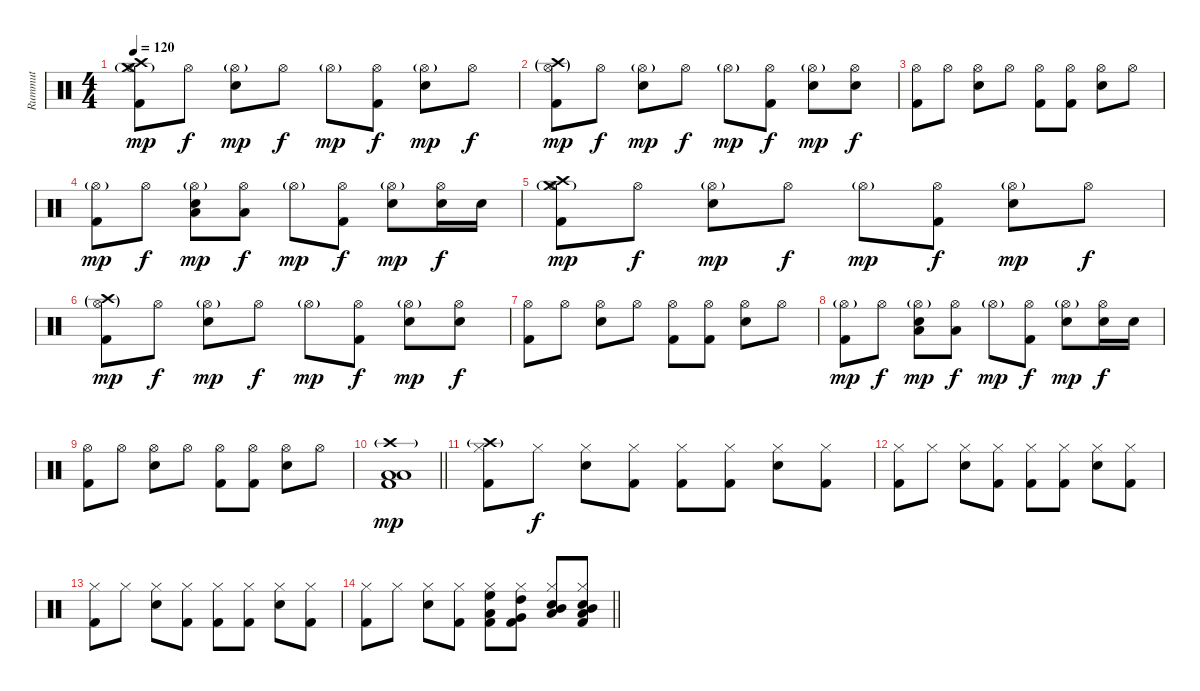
\track ("Rummut" "Rummut") {instrument percussion}
\staff {score}
\articulation defaults
\ts (4 4)
\tempo 120
\clef neutral
\ks c
("Hi-Hat (open)"{g} "Kick (hit) 2" "Crash medium (hit)" "Crash high (hit)").8{dy mp} "Hi-Hat (open)".8{dy f} ("Hi-Hat (open)"{g} "Snare (hit) 2").8{dy mp} "Hi-Hat (open)".8{dy f} "Hi-Hat (open)"{g}.8{dy mp} ("Hi-Hat (open)" "Kick (hit) 2").8{dy f} ("Hi-Hat (open)"{g} "Snare (hit) 2").8{dy mp} "Hi-Hat (open)".8{dy f} |
("Hi-Hat (open)"{g} "Kick (hit) 2" "Crash high (hit)"{g}).8{dy mp} "Hi-Hat (open)".8{dy f} ("Hi-Hat (open)"{g} "Snare (hit) 2").8{dy mp} "Hi-Hat (open)".8{dy f} "Hi-Hat (open)"{g}.8{dy mp} ("Hi-Hat (open)" "Kick (hit) 2").8{dy f} ("Hi-Hat (open)"{g} "Snare (hit) 2").8{dy mp} ("Hi-Hat (open)" "Snare (hit) 2").8{dy f} |
("Hi-Hat (open)" "Kick (hit) 2").8 "Hi-Hat (open)".8 ("Hi-Hat (open)" "Snare (hit) 2").8 "Hi-Hat (open)".8 ("Hi-Hat (open)" "Kick (hit) 2").8 ("Hi-Hat (open)" "Kick (hit) 2").8 ("Hi-Hat (open)" "Snare (hit) 2").8 "Hi-Hat (open)".8 |
("Hi-Hat (open)"{g} "Kick (hit) 2").8{dy mp} "Hi-Hat (open)".8{dy f} ("Hi-Hat (open)"{g} "Snare (hit) 2" "Low Tom (hit)").8{dy mp} ("Hi-Hat (open)" "Low Tom (hit)").8{dy f} "Hi-Hat (open)"{g}.8{dy mp} ("Hi-Hat (open)" "Kick (hit) 2").8{dy f} ("Hi-Hat (open)"{g} "Snare (hit) 2").8{dy mp} ("Hi-Hat (open)" "Snare (hit) 2").16{dy f} "Snare (hit) 2".16 |
("Hi-Hat (open)"{g} "Kick (hit) 2" "Crash medium (hit)" "Crash high (hit)").8{dy mp} "Hi-Hat (open)".8{dy f} ("Hi-Hat (open)"{g} "Snare (hit) 2").8{dy mp} "Hi-Hat (open)".8{dy f} "Hi-Hat (open)"{g}.8{dy mp} ("Hi-Hat (open)" "Kick (hit) 2").8{dy f} ("Hi-Hat (open)"{g} "Snare (hit) 2").8{dy mp} "Hi-Hat (open)".8{dy f} |
("Hi-Hat (open)"{g} "Kick (hit) 2" "Crash high (hit)"{g}).8{dy mp} "Hi-Hat (open)".8{dy f} ("Hi-Hat (open)"{g} "Snare (hit) 2").8{dy mp} "Hi-Hat (open)".8{dy f} "Hi-Hat (open)"{g}.8{dy mp} ("Hi-Hat (open)" "Kick (hit) 2").8{dy f} ("Hi-Hat (open)"{g} "Snare (hit) 2").8{dy mp} ("Hi-Hat (open)" "Snare (hit) 2").8{dy f} |
("Hi-Hat (open)" "Kick (hit) 2").8 "Hi-Hat (open)".8 ("Hi-Hat (open)" "Snare (hit) 2").8 "Hi-Hat (open)".8 ("Hi-Hat (open)" "Kick (hit) 2").8 ("Hi-Hat (open)" "Kick (hit) 2").8 ("Hi-Hat (open)" "Snare (hit) 2").8 "Hi-Hat (open)".8 |
("Hi-Hat (open)"{g} "Kick (hit) 2").8{dy mp} "Hi-Hat (open)".8{dy f} ("Hi-Hat (open)"{g} "Snare (hit) 2" "Low Tom (hit)").8{dy mp} ("Hi-Hat (open)" "Low Tom (hit)").8{dy f} "Hi-Hat (open)"{g}.8{dy mp} ("Hi-Hat (open)" "Kick (hit) 2").8{dy f} ("Hi-Hat (open)"{g} "Snare (hit) 2").8{dy mp} ("Hi-Hat (open)" "Snare (hit) 2").16{dy f} "Snare (hit) 2".16 |
("Hi-Hat (open)" "Kick (hit) 2").8 "Hi-Hat (open)".8 ("Hi-Hat (open)" "Snare (hit) 2").8 "Hi-Hat (open)".8 ("Hi-Hat (open)" "Kick (hit) 2").8 ("Hi-Hat (open)" "Kick (hit) 2").8 ("Hi-Hat (open)" "Snare (hit) 2").8 "Hi-Hat (open)".8 |
\barLineRight lightlight
("Crash high (hit)"{g} "Low Tom (hit)" "Low Floor Tom (hit)" "Kick (hit) 2").1{dy mp} |
("Hi-Hat (closed)" "Kick (hit) 2" "Crash high (hit)"{g}).8 "Hi-Hat (closed)".8{dy f} ("Snare (hit) 2" "Hi-Hat (closed)").8 ("Kick (hit) 2" "Hi-Hat (closed)").8 ("Kick (hit) 2" "Hi-Hat (closed)").8 ("Kick (hit) 2" "Hi-Hat (closed)").8 ("Snare (hit) 2" "Hi-Hat (closed)").8 ("Kick (hit) 2" "Hi-Hat (closed)").8 |
("Hi-Hat (closed)" "Kick (hit) 2").8 "Hi-Hat (closed)".8 ("Snare (hit) 2" "Hi-Hat (closed)").8 ("Kick (hit) 2" "Hi-Hat (closed)").8 ("Kick (hit) 2" "Hi-Hat (closed)").8 ("Kick (hit) 2" "Hi-Hat (closed)").8 ("Snare (hit) 2" "Hi-Hat (closed)").8 ("Kick (hit) 2" "Hi-Hat (closed)").8 |
("Hi-Hat (closed)" "Kick (hit) 2").8 "Hi-Hat (closed)".8 ("Snare (hit) 2" "Hi-Hat (closed)").8 ("Kick (hit) 2" "Hi-Hat (closed)").8 ("Kick (hit) 2" "Hi-Hat (closed)").8 ("Kick (hit) 2" "Hi-Hat (closed)").8 ("Snare (hit) 2" "Hi-Hat (closed)").8 ("Kick (hit) 2" "Hi-Hat (closed)").8 |
\barLineRight lightlight
("Hi-Hat (closed)" "Kick (hit) 2").8 "Hi-Hat (closed)".8 ("Snare (hit) 2" "Hi-Hat (closed)").8 ("Kick (hit) 2" "Hi-Hat (closed)").8 ("Kick (hit) 2" "Hi-Hat (closed)" "High Floor Tom (hit)" "Low Floor Tom (hit)").8 ("Kick (hit) 2" "Hi-Hat (closed)" "High Tom (hit)" "Very Low Tom (hit)").8 ("Snare (hit) 2" "Hi-Hat (closed)" "Mid Tom (hit)" "Low Tom (hit)").8 ("Kick (hit) 2" "Hi-Hat (closed)" "Snare (hit) 2" "Low Tom (hit)" "Mid Tom (hit)").8
